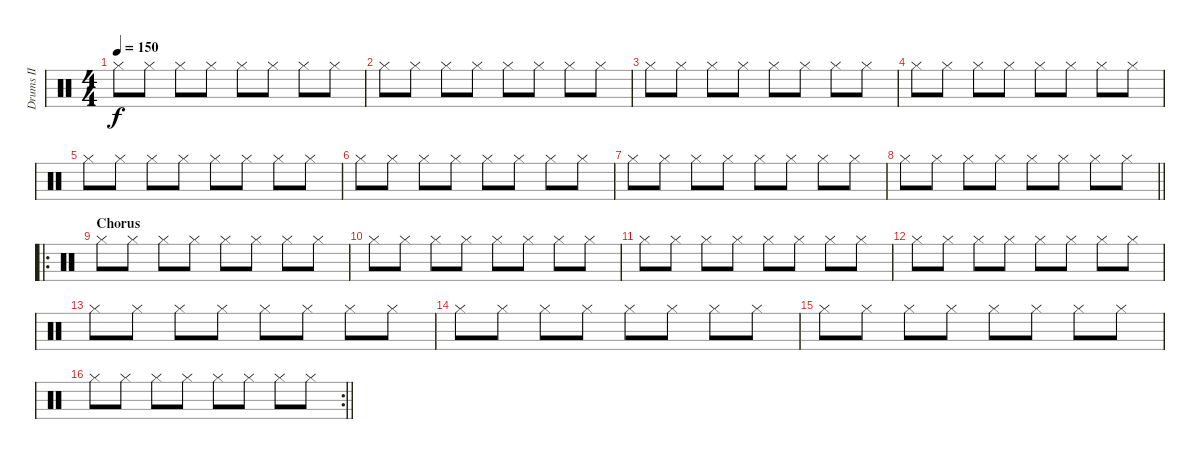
\track ("Drums II" "Drums II") {instrument percussion}
\staff {score}
\articulation defaults
\ts (4 4)
\tempo 150
\clef neutral
\ks c "Hi-Hat (closed)".8{dy f} "Hi-Hat (closed)".8 "Hi-Hat (closed)".8 "Hi-Hat (closed)".8 "Hi-Hat (closed)".8 "Hi-Hat (closed)".8 "Hi-Hat (closed)".8 "Hi-Hat (closed)".8
|
"Hi-Hat (closed)".8 "Hi-Hat (closed)".8 "Hi-Hat (closed)".8 "Hi-Hat (closed)".8 "Hi-Hat (closed)".8 "Hi-Hat (closed)".8 "Hi-Hat (closed)".8 "Hi-Hat (closed)".8 |
"Hi-Hat (closed)".8 "Hi-Hat (closed)".8 "Hi-Hat (closed)".8 "Hi-Hat (closed)".8 "Hi-Hat (closed)".8 "Hi-Hat (closed)".8 "Hi-Hat (closed)".8 "Hi-Hat (closed)".8 |
"Hi-Hat (closed)".8 "Hi-Hat (closed)".8 "Hi-Hat (closed)".8 "Hi-Hat (closed)".8 "Hi-Hat (closed)".8 "Hi-Hat (closed)".8 "Hi-Hat (closed)".8 "Hi-Hat (closed)".8 |
"Hi-Hat (closed)".8 "Hi-Hat (closed)".8 "Hi-Hat (closed)".8 "Hi-Hat (closed)".8 "Hi-Hat (closed)".8 "Hi-Hat (closed)".8 "Hi-Hat (closed)".8 "Hi-Hat (closed)".8 |
"Hi-Hat (closed)".8 "Hi-Hat (closed)".8 "Hi-Hat (closed)".8 "Hi-Hat (closed)".8 "Hi-Hat (closed)".8 "Hi-Hat (closed)".8 "Hi-Hat (closed)".8 "Hi-Hat (closed)".8 |
"Hi-Hat (closed)".8 "Hi-Hat (closed)".8 "Hi-Hat (closed)".8 "Hi-Hat (closed)".8 "Hi-Hat (closed)".8 "Hi-Hat (closed)".8 "Hi-Hat (closed)".8 "Hi-Hat (closed)".8 |
\barLineRight lightlight "Hi-Hat (closed)".8 "Hi-Hat (closed)".8 "Hi-Hat (closed)".8 "Hi-Hat (closed)".8 "Hi-Hat (closed)".8 "Hi-Hat (closed)".8 "Hi-Hat (closed)".8 "Hi-Hat (closed)".8
|
\ro
\section ("" "Chorus")
"Hi-Hat (closed)".8 "Hi-Hat (closed)".8 "Hi-Hat (closed)".8 "Hi-Hat (closed)".8 "Hi-Hat (closed)".8 "Hi-Hat (closed)".8 "Hi-Hat (closed)".8 "Hi-Hat (closed)".8 |
"Hi-Hat (closed)".8 "Hi-Hat (closed)".8 "Hi-Hat (closed)".8 "Hi-Hat (closed)".8 "Hi-Hat (closed)".8 "Hi-Hat (closed)".8 "Hi-Hat (closed)".8 "Hi-Hat (closed)".8 |
"Hi-Hat (closed)".8 "Hi-Hat (closed)".8 "Hi-Hat (closed)".8 "Hi-Hat (closed)".8 "Hi-Hat (closed)".8 "Hi-Hat (closed)".8 "Hi-Hat (closed)".8 "Hi-Hat (closed)".8 |
"Hi-Hat (closed)".8 "Hi-Hat (closed)".8 "Hi-Hat (closed)".8 "Hi-Hat (closed)".8 "Hi-Hat (closed)".8 "Hi-Hat (closed)".8 "Hi-Hat (closed)".8 "Hi-Hat (closed)".8 |
"Hi-Hat (closed)".8 "Hi-Hat (closed)".8 "Hi-Hat (closed)".8 "Hi-Hat (closed)".8 "Hi-Hat (closed)".8 "Hi-Hat (closed)".8 "Hi-Hat (closed)".8 "Hi-Hat (closed)".8 |
"Hi-Hat (closed)".8 "Hi-Hat (closed)".8 "Hi-Hat (closed)".8 "Hi-Hat (closed)".8 "Hi-Hat (closed)".8 "Hi-Hat (closed)".8 "Hi-Hat (closed)".8 "Hi-Hat (closed)".8 |
"Hi-Hat (closed)".8 "Hi-Hat (closed)".8 "Hi-Hat (closed)".8 "Hi-Hat (closed)".8 "Hi-Hat (closed)".8 "Hi-Hat (closed)".8 "Hi-Hat (closed)".8 "Hi-Hat (closed)".8 |
\rc 2
\barLineRight lightlight "Hi-Hat (closed)".8 "Hi-Hat (closed)".8 "Hi-Hat (closed)".8 "Hi-Hat (closed)".8 "Hi-Hat (closed)".8 "Hi-Hat (closed)".8 "Hi-Hat (closed)".8 "Hi-Hat (closed)".8
